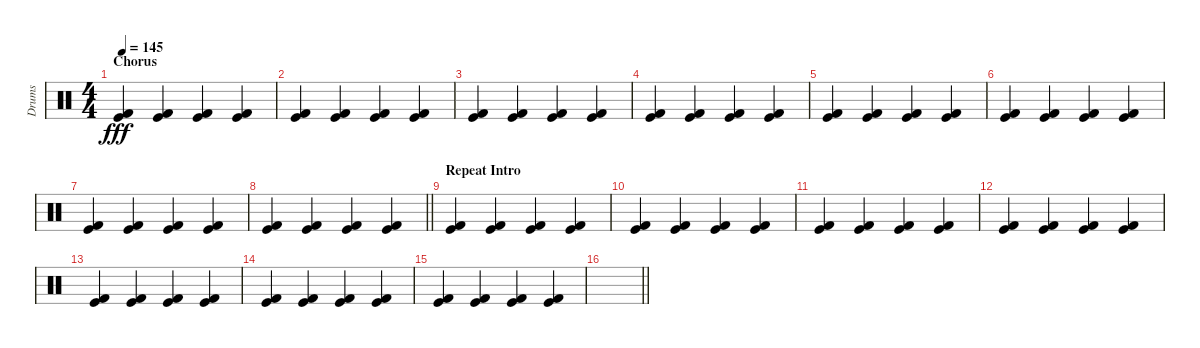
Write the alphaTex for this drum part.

\track ("Drums" "Drums") {instrument percussion}
\staff {score}
\articulation defaults
\ts (4 4)
\section ("" "Chorus")
\tempo 145
\clef neutral
\ks c
("Kick (hit)" "Kick (hit) 2").4{dy fff} ("Kick (hit)" "Kick (hit) 2").4 ("Kick (hit)" "Kick (hit) 2").4 ("Kick (hit)" "Kick (hit) 2").4 |
("Kick (hit)" "Kick (hit) 2").4 ("Kick (hit)" "Kick (hit) 2").4 ("Kick (hit)" "Kick (hit) 2").4 ("Kick (hit)" "Kick (hit) 2").4 |
("Kick (hit)" "Kick (hit) 2").4 ("Kick (hit)" "Kick (hit) 2").4 ("Kick (hit)" "Kick (hit) 2").4 ("Kick (hit)" "Kick (hit) 2").4 |
("Kick (hit)" "Kick (hit) 2").4 ("Kick (hit)" "Kick (hit) 2").4 ("Kick (hit)" "Kick (hit) 2").4 ("Kick (hit)" "Kick (hit) 2").4 |
("Kick (hit)" "Kick (hit) 2").4 ("Kick (hit)" "Kick (hit) 2").4 ("Kick (hit)" "Kick (hit) 2").4 ("Kick (hit)" "Kick (hit) 2").4 |
("Kick (hit)" "Kick (hit) 2").4 ("Kick (hit)" "Kick (hit) 2").4 ("Kick (hit)" "Kick (hit) 2").4 ("Kick (hit)" "Kick (hit) 2").4 |
("Kick (hit)" "Kick (hit) 2").4 ("Kick (hit)" "Kick (hit) 2").4 ("Kick (hit)" "Kick (hit) 2").4 ("Kick (hit)" "Kick (hit) 2").4 |
\barLineRight lightlight
("Kick (hit)" "Kick (hit) 2").4 ("Kick (hit)" "Kick (hit) 2").4 ("Kick (hit)" "Kick (hit) 2").4 ("Kick (hit)" "Kick (hit) 2").4 |
\section ("" "Repeat Intro")
("Kick (hit)" "Kick (hit) 2").4 ("Kick (hit)" "Kick (hit) 2").4 ("Kick (hit)" "Kick (hit) 2").4 ("Kick (hit)" "Kick (hit) 2").4 |
("Kick (hit)" "Kick (hit) 2").4 ("Kick (hit)" "Kick (hit) 2").4 ("Kick (hit)" "Kick (hit) 2").4 ("Kick (hit)" "Kick (hit) 2").4 |
("Kick (hit)" "Kick (hit) 2").4 ("Kick (hit)" "Kick (hit) 2").4 ("Kick (hit)" "Kick (hit) 2").4 ("Kick (hit)" "Kick (hit) 2").4 |
("Kick (hit)" "Kick (hit) 2").4 ("Kick (hit)" "Kick (hit) 2").4 ("Kick (hit)" "Kick (hit) 2").4 ("Kick (hit)" "Kick (hit) 2").4 |
("Kick (hit)" "Kick (hit) 2").4 ("Kick (hit)" "Kick (hit) 2").4 ("Kick (hit)" "Kick (hit) 2").4 ("Kick (hit)" "Kick (hit) 2").4 |
("Kick (hit)" "Kick (hit) 2").4 ("Kick (hit)" "Kick (hit) 2").4 ("Kick (hit)" "Kick (hit) 2").4 ("Kick (hit)" "Kick (hit) 2").4 |
("Kick (hit)" "Kick (hit) 2").4 ("Kick (hit)" "Kick (hit) 2").4 ("Kick (hit)" "Kick (hit) 2").4 ("Kick (hit)" "Kick (hit) 2").4 |
\barLineRight lightlight
